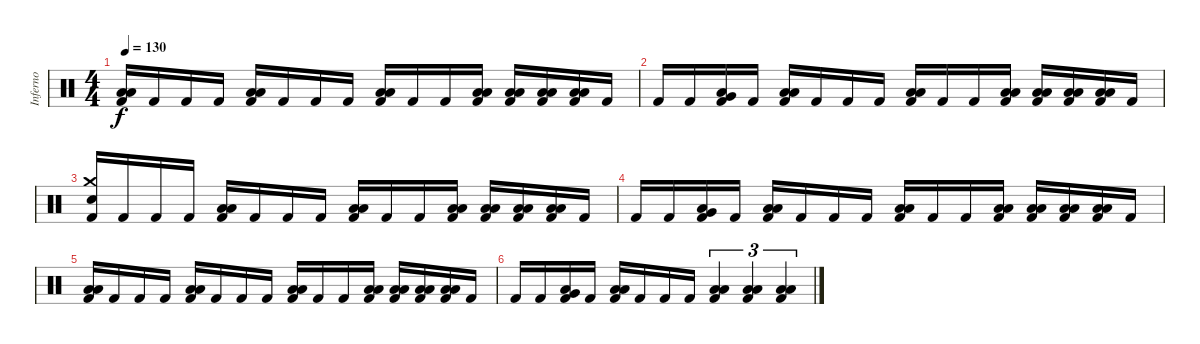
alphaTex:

\track ("Inferno" "Inferno") {instrument percussion}
\staff {score}
\articulation defaults
\ts (4 4)
\tempo 130
\clef neutral
\ks c
("Low Tom (hit)" "Low Floor Tom (hit)" "Kick (hit) 2").16{dy f} "Kick (hit) 2".16 "Kick (hit) 2".16 "Kick (hit) 2".16 ("Low Tom (hit)" "Low Floor Tom (hit)" "Kick (hit) 2").16 "Kick (hit) 2".16 "Kick (hit) 2".16 "Kick (hit) 2".16 ("Low Tom (hit)" "Low Floor Tom (hit)" "Kick (hit) 2").16 "Kick (hit) 2".16 "Kick (hit) 2".16 ("Low Tom (hit)" "Low Floor Tom (hit)" "Kick (hit) 2").16 ("Low Tom (hit)" "Low Floor Tom (hit)" "Kick (hit) 2").16 ("Low Tom (hit)" "Low Floor Tom (hit)" "Kick (hit) 2").16 ("Low Tom (hit)" "Low Floor Tom (hit)" "Kick (hit) 2").16 "Kick (hit) 2".16 |
"Kick (hit) 2".16 "Kick (hit) 2".16 ("Very Low Tom (hit)" "Low Floor Tom (hit)" "Kick (hit) 2").16 "Kick (hit) 2".16 ("Low Tom (hit)" "Low Floor Tom (hit)" "Kick (hit) 2").16 "Kick (hit) 2".16 "Kick (hit) 2".16 "Kick (hit) 2".16 ("Low Tom (hit)" "Low Floor Tom (hit)" "Kick (hit) 2").16 "Kick (hit) 2".16 "Kick (hit) 2".16 ("Low Tom (hit)" "Low Floor Tom (hit)" "Kick (hit) 2").16 ("Low Tom (hit)" "Low Floor Tom (hit)" "Kick (hit) 2").16 ("Low Tom (hit)" "Low Floor Tom (hit)" "Kick (hit) 2").16 ("Low Tom (hit)" "Low Floor Tom (hit)" "Kick (hit) 2").16 "Kick (hit) 2".16 |
("Crash medium (hit)" "Snare (hit) 2" "Kick (hit) 2").16 "Kick (hit) 2".16 "Kick (hit) 2".16 "Kick (hit) 2".16 ("Low Tom (hit)" "Low Floor Tom (hit)" "Kick (hit) 2").16 "Kick (hit) 2".16 "Kick (hit) 2".16 "Kick (hit) 2".16 ("Low Tom (hit)" "Low Floor Tom (hit)" "Kick (hit) 2").16 "Kick (hit) 2".16 "Kick (hit) 2".16 ("Low Tom (hit)" "Low Floor Tom (hit)" "Kick (hit) 2").16 ("Low Tom (hit)" "Low Floor Tom (hit)" "Kick (hit) 2").16 ("Low Tom (hit)" "Low Floor Tom (hit)" "Kick (hit) 2").16 ("Low Tom (hit)" "Low Floor Tom (hit)" "Kick (hit) 2").16 "Kick (hit) 2".16 |
"Kick (hit) 2".16 "Kick (hit) 2".16 ("Very Low Tom (hit)" "Low Floor Tom (hit)" "Kick (hit) 2").16 "Kick (hit) 2".16 ("Low Tom (hit)" "Low Floor Tom (hit)" "Kick (hit) 2").16 "Kick (hit) 2".16 "Kick (hit) 2".16 "Kick (hit) 2".16 ("Low Tom (hit)" "Low Floor Tom (hit)" "Kick (hit) 2").16 "Kick (hit) 2".16 "Kick (hit) 2".16 ("Low Tom (hit)" "Low Floor Tom (hit)" "Kick (hit) 2").16 ("Low Tom (hit)" "Low Floor Tom (hit)" "Kick (hit) 2").16 ("Low Tom (hit)" "Low Floor Tom (hit)" "Kick (hit) 2").16 ("Low Tom (hit)" "Low Floor Tom (hit)" "Kick (hit) 2").16 "Kick (hit) 2".16 |
("Low Tom (hit)" "Low Floor Tom (hit)" "Kick (hit) 2").16 "Kick (hit) 2".16 "Kick (hit) 2".16 "Kick (hit) 2".16 ("Low Tom (hit)" "Low Floor Tom (hit)" "Kick (hit) 2").16 "Kick (hit) 2".16 "Kick (hit) 2".16 "Kick (hit) 2".16 ("Low Tom (hit)" "Low Floor Tom (hit)" "Kick (hit) 2").16 "Kick (hit) 2".16 "Kick (hit) 2".16 ("Low Tom (hit)" "Low Floor Tom (hit)" "Kick (hit) 2").16 ("Low Tom (hit)" "Low Floor Tom (hit)" "Kick (hit) 2").16 ("Low Tom (hit)" "Low Floor Tom (hit)" "Kick (hit) 2").16 ("Low Tom (hit)" "Low Floor Tom (hit)" "Kick (hit) 2").16 "Kick (hit) 2".16 |
"Kick (hit) 2".16 "Kick (hit) 2".16 ("Very Low Tom (hit)" "Low Floor Tom (hit)" "Kick (hit) 2").16 "Kick (hit) 2".16 ("Low Tom (hit)" "Low Floor Tom (hit)" "Kick (hit) 2").16 "Kick (hit) 2".16 "Kick (hit) 2".16 "Kick (hit) 2".16 ("Low Tom (hit)" "Low Floor Tom (hit)" "Kick (hit) 2").4{tu (3 2)} ("Low Tom (hit)" "Low Floor Tom (hit)" "Kick (hit) 2").4{tu (3 2)} ("Low Tom (hit)" "Low Floor Tom (hit)" "Kick (hit) 2").4{tu (3 2)}
